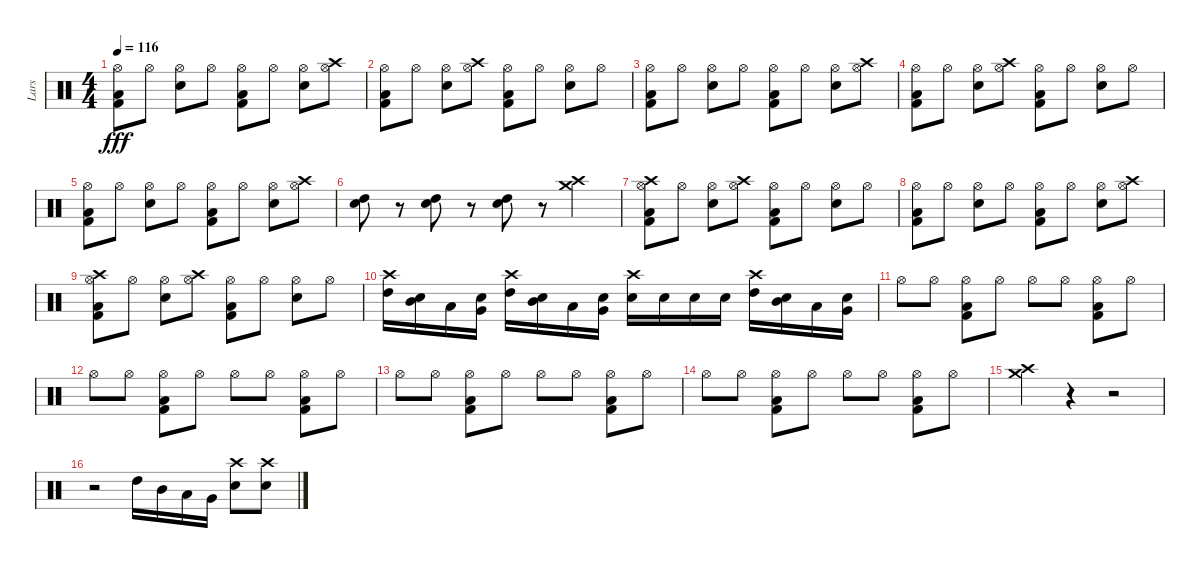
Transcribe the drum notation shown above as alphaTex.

\track ("Lars" "Lars") {instrument percussion}
\staff {score}
\articulation defaults
\ts (4 4)
\tempo 116
\clef neutral
\ks c
("Low Floor Tom (hit)" "Hi-Hat (open)" "Kick (hit) 2").8{dy fff} "Hi-Hat (open)".8 ("Hi-Hat (open)" "Electric Snare (hit)").8 "Hi-Hat (open)".8 ("Low Floor Tom (hit)" "Hi-Hat (open)" "Kick (hit) 2").8 "Hi-Hat (open)".8 ("Hi-Hat (open)" "Electric Snare (hit)").8 ("Crash high (hit)" "Hi-Hat (open)").8 |
("Low Floor Tom (hit)" "Hi-Hat (open)" "Kick (hit) 2").8 "Hi-Hat (open)".8 ("Hi-Hat (open)" "Electric Snare (hit)").8 ("Crash high (hit)" "Hi-Hat (open)").8 ("Low Floor Tom (hit)" "Hi-Hat (open)" "Kick (hit) 2").8 "Hi-Hat (open)".8 ("Hi-Hat (open)" "Electric Snare (hit)").8 "Hi-Hat (open)".8 |
("Low Floor Tom (hit)" "Hi-Hat (open)" "Kick (hit) 2").8 "Hi-Hat (open)".8 ("Hi-Hat (open)" "Electric Snare (hit)").8 "Hi-Hat (open)".8 ("Low Floor Tom (hit)" "Hi-Hat (open)" "Kick (hit) 2").8 "Hi-Hat (open)".8 ("Hi-Hat (open)" "Electric Snare (hit)").8 ("Crash high (hit)" "Hi-Hat (open)").8 |
("Low Floor Tom (hit)" "Hi-Hat (open)" "Kick (hit) 2").8 "Hi-Hat (open)".8 ("Hi-Hat (open)" "Electric Snare (hit)").8 ("Crash high (hit)" "Hi-Hat (open)").8 ("Low Floor Tom (hit)" "Hi-Hat (open)" "Kick (hit) 2").8 "Hi-Hat (open)".8 ("Hi-Hat (open)" "Electric Snare (hit)").8 "Hi-Hat (open)".8 |
("Low Floor Tom (hit)" "Hi-Hat (open)" "Kick (hit) 2").8 "Hi-Hat (open)".8 ("Hi-Hat (open)" "Electric Snare (hit)").8 "Hi-Hat (open)".8 ("Low Floor Tom (hit)" "Hi-Hat (open)" "Kick (hit) 2").8 "Hi-Hat (open)".8 ("Hi-Hat (open)" "Electric Snare (hit)").8 ("Crash high (hit)" "Hi-Hat (open)").8 |
("High Tom (hit)" "Electric Snare (hit)").8 r.8 ("High Tom (hit)" "Electric Snare (hit)").8 r.8 ("High Tom (hit)" "Electric Snare (hit)").8 r.8 ("Crash high (hit)" "Crash medium (hit)").4 |
("Crash high (hit)" "Low Floor Tom (hit)" "Hi-Hat (open)" "Kick (hit) 2").8 "Hi-Hat (open)".8 ("Hi-Hat (open)" "Electric Snare (hit)").8 ("Crash high (hit)" "Hi-Hat (open)").8 ("Low Floor Tom (hit)" "Hi-Hat (open)" "Kick (hit) 2").8 "Hi-Hat (open)".8 ("Hi-Hat (open)" "Electric Snare (hit)").8 "Hi-Hat (open)".8 |
("Low Floor Tom (hit)" "Hi-Hat (open)" "Kick (hit) 2").8 "Hi-Hat (open)".8 ("Hi-Hat (open)" "Electric Snare (hit)").8 "Hi-Hat (open)".8 ("Low Floor Tom (hit)" "Hi-Hat (open)" "Kick (hit) 2").8 "Hi-Hat (open)".8 ("Hi-Hat (open)" "Electric Snare (hit)").8 ("Crash high (hit)" "Hi-Hat (open)").8 |
("Crash high (hit)" "Low Floor Tom (hit)" "Hi-Hat (open)" "Kick (hit) 2").8 "Hi-Hat (open)".8 ("Hi-Hat (open)" "Electric Snare (hit)").8 ("Crash high (hit)" "Hi-Hat (open)").8 ("Low Floor Tom (hit)" "Hi-Hat (open)" "Kick (hit) 2").8 "Hi-Hat (open)".8 ("Hi-Hat (open)" "Electric Snare (hit)").8 "Hi-Hat (open)".8 |
("Crash high (hit)" "High Tom (hit)").16 ("Mid Tom (hit)" "Electric Snare (hit)").16 "Low Tom (hit)".16 ("Very Low Tom (hit)" "Electric Snare (hit)").16 ("Crash high (hit)" "High Tom (hit)").16 ("Mid Tom (hit)" "Electric Snare (hit)").16 "Low Tom (hit)".16 ("Very Low Tom (hit)" "Electric Snare (hit)").16 ("Crash high (hit)" "Electric Snare (hit)").16 "Electric Snare (hit)".16 "Electric Snare (hit)".16 "Electric Snare (hit)".16 ("Crash high (hit)" "High Tom (hit)").16 ("Mid Tom (hit)" "Electric Snare (hit)").16 "Low Tom (hit)".16 ("Very Low Tom (hit)" "Electric Snare (hit)").16 |
"Hi-Hat (open)".8 "Hi-Hat (open)".8 ("Low Floor Tom (hit)" "Hi-Hat (open)" "Kick (hit) 2").8 "Hi-Hat (open)".8 "Hi-Hat (open)".8 "Hi-Hat (open)".8 ("Low Floor Tom (hit)" "Hi-Hat (open)" "Kick (hit) 2").8 "Hi-Hat (open)".8 |
"Hi-Hat (open)".8 "Hi-Hat (open)".8 ("Low Floor Tom (hit)" "Hi-Hat (open)" "Kick (hit) 2").8 "Hi-Hat (open)".8 "Hi-Hat (open)".8 "Hi-Hat (open)".8 ("Low Floor Tom (hit)" "Hi-Hat (open)" "Kick (hit) 2").8 "Hi-Hat (open)".8 |
"Hi-Hat (open)".8 "Hi-Hat (open)".8 ("Low Floor Tom (hit)" "Hi-Hat (open)" "Kick (hit) 2").8 "Hi-Hat (open)".8 "Hi-Hat (open)".8 "Hi-Hat (open)".8 ("Low Floor Tom (hit)" "Hi-Hat (open)" "Kick (hit) 2").8 "Hi-Hat (open)".8 |
"Hi-Hat (open)".8 "Hi-Hat (open)".8 ("Low Floor Tom (hit)" "Hi-Hat (open)" "Kick (hit) 2").8 "Hi-Hat (open)".8 "Hi-Hat (open)".8 "Hi-Hat (open)".8 ("Low Floor Tom (hit)" "Hi-Hat (open)" "Kick (hit) 2").8 "Hi-Hat (open)".8 |
("Crash high (hit)" "Crash medium (hit)").4 r.4 r.2 |
r.2 "High Tom (hit)".16 "Mid Tom (hit)".16 "Low Tom (hit)".16 "Very Low Tom (hit)".16 ("Crash high (hit)" "Electric Snare (hit)").8 ("Crash high (hit)" "Electric Snare (hit)").8
